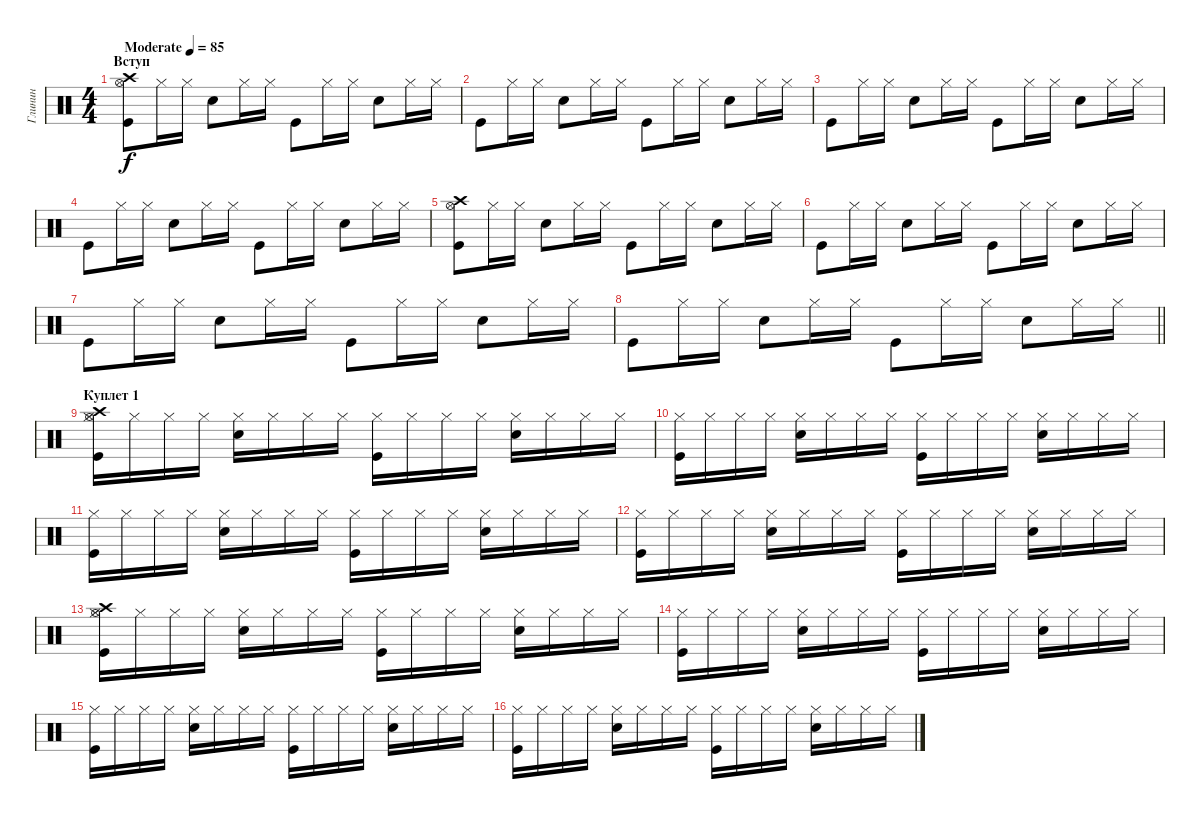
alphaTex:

\track ("Глинин" "Глинин") {instrument percussion}
\staff {score}
\articulation defaults
\ts (4 4)
\section ("" "Вступ")
\tempo (85 "Moderate")
\clef neutral
\ks c
("Kick (hit)" "Hi-Hat (open)" "Crash high (hit)").8{dy f} "Hi-Hat (closed)".16 "Hi-Hat (closed)".16 "Snare (hit) 2".8 "Hi-Hat (closed)".16 "Hi-Hat (closed)".16 "Kick (hit)".8 "Hi-Hat (closed)".16 "Hi-Hat (closed)".16 "Snare (hit) 2".8 "Hi-Hat (closed)".16 "Hi-Hat (closed)".16 |
"Kick (hit)".8 "Hi-Hat (closed)".16 "Hi-Hat (closed)".16 "Snare (hit) 2".8 "Hi-Hat (closed)".16 "Hi-Hat (closed)".16 "Kick (hit)".8 "Hi-Hat (closed)".16 "Hi-Hat (closed)".16 "Snare (hit) 2".8 "Hi-Hat (closed)".16 "Hi-Hat (closed)".16 |
"Kick (hit)".8 "Hi-Hat (closed)".16 "Hi-Hat (closed)".16 "Snare (hit) 2".8 "Hi-Hat (closed)".16 "Hi-Hat (closed)".16 "Kick (hit)".8 "Hi-Hat (closed)".16 "Hi-Hat (closed)".16 "Snare (hit) 2".8 "Hi-Hat (closed)".16 "Hi-Hat (closed)".16 |
"Kick (hit)".8 "Hi-Hat (closed)".16 "Hi-Hat (closed)".16 "Snare (hit) 2".8 "Hi-Hat (closed)".16 "Hi-Hat (closed)".16 "Kick (hit)".8 "Hi-Hat (closed)".16 "Hi-Hat (closed)".16 "Snare (hit) 2".8 "Hi-Hat (closed)".16 "Hi-Hat (closed)".16 |
("Kick (hit)" "Hi-Hat (open)" "Crash high (hit)").8 "Hi-Hat (closed)".16 "Hi-Hat (closed)".16 "Snare (hit) 2".8 "Hi-Hat (closed)".16 "Hi-Hat (closed)".16 "Kick (hit)".8 "Hi-Hat (closed)".16 "Hi-Hat (closed)".16 "Snare (hit) 2".8 "Hi-Hat (closed)".16 "Hi-Hat (closed)".16 |
"Kick (hit)".8 "Hi-Hat (closed)".16 "Hi-Hat (closed)".16 "Snare (hit) 2".8 "Hi-Hat (closed)".16 "Hi-Hat (closed)".16 "Kick (hit)".8 "Hi-Hat (closed)".16 "Hi-Hat (closed)".16 "Snare (hit) 2".8 "Hi-Hat (closed)".16 "Hi-Hat (closed)".16 |
"Kick (hit)".8 "Hi-Hat (closed)".16 "Hi-Hat (closed)".16 "Snare (hit) 2".8 "Hi-Hat (closed)".16 "Hi-Hat (closed)".16 "Kick (hit)".8 "Hi-Hat (closed)".16 "Hi-Hat (closed)".16 "Snare (hit) 2".8 "Hi-Hat (closed)".16 "Hi-Hat (closed)".16 |
\barLineRight lightlight "Kick (hit)".8 "Hi-Hat (closed)".16 "Hi-Hat (closed)".16 "Snare (hit) 2".8 "Hi-Hat (closed)".16 "Hi-Hat (closed)".16 "Kick (hit)".8 "Hi-Hat (closed)".16 "Hi-Hat (closed)".16 "Snare (hit) 2".8 "Hi-Hat (closed)".16 "Hi-Hat (closed)".16
|
\section ("" "Куплет 1")
("Hi-Hat (closed)" "Kick (hit)" "Hi-Hat (open)" "Crash high (hit)").16 "Hi-Hat (closed)".16 "Hi-Hat (closed)".16 "Hi-Hat (closed)".16 ("Hi-Hat (closed)" "Snare (hit) 2").16 "Hi-Hat (closed)".16 "Hi-Hat (closed)".16 "Hi-Hat (closed)".16 ("Hi-Hat (closed)" "Kick (hit)").16 "Hi-Hat (closed)".16 "Hi-Hat (closed)".16 "Hi-Hat (closed)".16 ("Hi-Hat (closed)" "Snare (hit) 2").16 "Hi-Hat (closed)".16 "Hi-Hat (closed)".16 "Hi-Hat (closed)".16 |
("Hi-Hat (closed)" "Kick (hit)").16 "Hi-Hat (closed)".16 "Hi-Hat (closed)".16 "Hi-Hat (closed)".16 ("Hi-Hat (closed)" "Snare (hit) 2").16 "Hi-Hat (closed)".16 "Hi-Hat (closed)".16 "Hi-Hat (closed)".16 ("Hi-Hat (closed)" "Kick (hit)").16 "Hi-Hat (closed)".16 "Hi-Hat (closed)".16 "Hi-Hat (closed)".16 ("Hi-Hat (closed)" "Snare (hit) 2").16 "Hi-Hat (closed)".16 "Hi-Hat (closed)".16 "Hi-Hat (closed)".16 |
("Hi-Hat (closed)" "Kick (hit)").16 "Hi-Hat (closed)".16 "Hi-Hat (closed)".16 "Hi-Hat (closed)".16 ("Hi-Hat (closed)" "Snare (hit) 2").16 "Hi-Hat (closed)".16 "Hi-Hat (closed)".16 "Hi-Hat (closed)".16 ("Hi-Hat (closed)" "Kick (hit)").16 "Hi-Hat (closed)".16 "Hi-Hat (closed)".16 "Hi-Hat (closed)".16 ("Hi-Hat (closed)" "Snare (hit) 2").16 "Hi-Hat (closed)".16 "Hi-Hat (closed)".16 "Hi-Hat (closed)".16 |
("Hi-Hat (closed)" "Kick (hit)").16 "Hi-Hat (closed)".16 "Hi-Hat (closed)".16 "Hi-Hat (closed)".16 ("Hi-Hat (closed)" "Snare (hit) 2").16 "Hi-Hat (closed)".16 "Hi-Hat (closed)".16 "Hi-Hat (closed)".16 ("Hi-Hat (closed)" "Kick (hit)").16 "Hi-Hat (closed)".16 "Hi-Hat (closed)".16 "Hi-Hat (closed)".16 ("Hi-Hat (closed)" "Snare (hit) 2").16 "Hi-Hat (closed)".16 "Hi-Hat (closed)".16 "Hi-Hat (closed)".16 |
("Hi-Hat (closed)" "Kick (hit)" "Hi-Hat (open)" "Crash high (hit)").16 "Hi-Hat (closed)".16 "Hi-Hat (closed)".16 "Hi-Hat (closed)".16 ("Hi-Hat (closed)" "Snare (hit) 2").16 "Hi-Hat (closed)".16 "Hi-Hat (closed)".16 "Hi-Hat (closed)".16 ("Hi-Hat (closed)" "Kick (hit)").16 "Hi-Hat (closed)".16 "Hi-Hat (closed)".16 "Hi-Hat (closed)".16 ("Hi-Hat (closed)" "Snare (hit) 2").16 "Hi-Hat (closed)".16 "Hi-Hat (closed)".16 "Hi-Hat (closed)".16 |
("Hi-Hat (closed)" "Kick (hit)").16 "Hi-Hat (closed)".16 "Hi-Hat (closed)".16 "Hi-Hat (closed)".16 ("Hi-Hat (closed)" "Snare (hit) 2").16 "Hi-Hat (closed)".16 "Hi-Hat (closed)".16 "Hi-Hat (closed)".16 ("Hi-Hat (closed)" "Kick (hit)").16 "Hi-Hat (closed)".16 "Hi-Hat (closed)".16 "Hi-Hat (closed)".16 ("Hi-Hat (closed)" "Snare (hit) 2").16 "Hi-Hat (closed)".16 "Hi-Hat (closed)".16 "Hi-Hat (closed)".16 |
("Hi-Hat (closed)" "Kick (hit)").16 "Hi-Hat (closed)".16 "Hi-Hat (closed)".16 "Hi-Hat (closed)".16 ("Hi-Hat (closed)" "Snare (hit) 2").16 "Hi-Hat (closed)".16 "Hi-Hat (closed)".16 "Hi-Hat (closed)".16 ("Hi-Hat (closed)" "Kick (hit)").16 "Hi-Hat (closed)".16 "Hi-Hat (closed)".16 "Hi-Hat (closed)".16 ("Hi-Hat (closed)" "Snare (hit) 2").16 "Hi-Hat (closed)".16 "Hi-Hat (closed)".16 "Hi-Hat (closed)".16 |
("Hi-Hat (closed)" "Kick (hit)").16 "Hi-Hat (closed)".16 "Hi-Hat (closed)".16 "Hi-Hat (closed)".16 ("Hi-Hat (closed)" "Snare (hit) 2").16 "Hi-Hat (closed)".16 "Hi-Hat (closed)".16 "Hi-Hat (closed)".16 ("Hi-Hat (closed)" "Kick (hit)").16 "Hi-Hat (closed)".16 "Hi-Hat (closed)".16 "Hi-Hat (closed)".16 ("Hi-Hat (closed)" "Snare (hit) 2").16 "Hi-Hat (closed)".16 "Hi-Hat (closed)".16 "Hi-Hat (closed)".16
